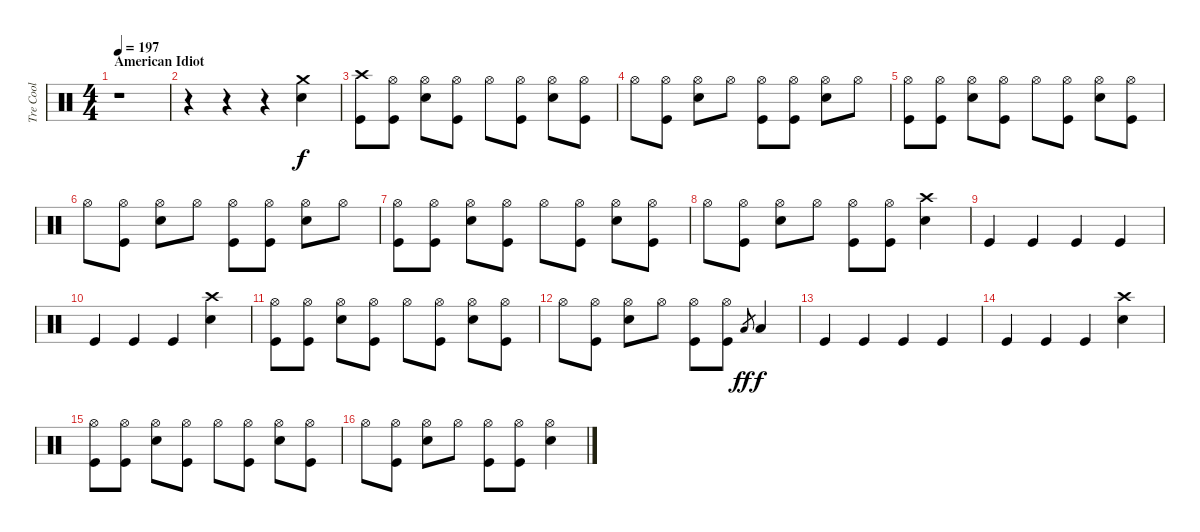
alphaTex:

\track ("Tre Cool" "Tre Cool") {instrument percussion}
\staff {score}
\articulation defaults
\ts (4 4)
\section ("" "American Idiot")
\tempo 197
\clef neutral
\ks c
r.1{dy f volume 14} |
r.4 r.4 r.4 ("Crash medium (hit)" "Electric Snare (hit)").4 |
("Crash high (hit)" "Kick (hit)").8 ("Hi-Hat (open)" "Kick (hit)").8 ("Hi-Hat (open)" "Electric Snare (hit)").8 ("Hi-Hat (open)" "Kick (hit)").8 "Hi-Hat (open)".8 ("Hi-Hat (open)" "Kick (hit)").8 ("Hi-Hat (open)" "Electric Snare (hit)").8 ("Hi-Hat (open)" "Kick (hit)").8 |
"Hi-Hat (open)".8 ("Hi-Hat (open)" "Kick (hit)").8 ("Hi-Hat (open)" "Electric Snare (hit)").8 "Hi-Hat (open)".8 ("Hi-Hat (open)" "Kick (hit)").8 ("Hi-Hat (open)" "Kick (hit)").8 ("Hi-Hat (open)" "Electric Snare (hit)").8 "Hi-Hat (open)".8 |
("Hi-Hat (open)" "Kick (hit)").8 ("Hi-Hat (open)" "Kick (hit)").8 ("Hi-Hat (open)" "Electric Snare (hit)").8 ("Hi-Hat (open)" "Kick (hit)").8 "Hi-Hat (open)".8 ("Hi-Hat (open)" "Kick (hit)").8 ("Hi-Hat (open)" "Electric Snare (hit)").8 ("Hi-Hat (open)" "Kick (hit)").8 |
"Hi-Hat (open)".8 ("Hi-Hat (open)" "Kick (hit)").8 ("Hi-Hat (open)" "Electric Snare (hit)").8 "Hi-Hat (open)".8 ("Hi-Hat (open)" "Kick (hit)").8 ("Hi-Hat (open)" "Kick (hit)").8 ("Hi-Hat (open)" "Electric Snare (hit)").8 "Hi-Hat (open)".8 |
("Hi-Hat (open)" "Kick (hit)").8 ("Hi-Hat (open)" "Kick (hit)").8 ("Hi-Hat (open)" "Electric Snare (hit)").8 ("Hi-Hat (open)" "Kick (hit)").8 "Hi-Hat (open)".8 ("Hi-Hat (open)" "Kick (hit)").8 ("Hi-Hat (open)" "Electric Snare (hit)").8 ("Hi-Hat (open)" "Kick (hit)").8 |
"Hi-Hat (open)".8 ("Hi-Hat (open)" "Kick (hit)").8 ("Hi-Hat (open)" "Electric Snare (hit)").8 "Hi-Hat (open)".8 ("Hi-Hat (open)" "Kick (hit)").8 ("Hi-Hat (open)" "Kick (hit)").8 ("Crash high (hit)" "Electric Snare (hit)").4 |
"Kick (hit)".4 "Kick (hit)".4 "Kick (hit)".4 "Kick (hit)".4 |
"Kick (hit)".4 "Kick (hit)".4 "Kick (hit)".4 ("Crash high (hit)" "Electric Snare (hit)").4 |
("Hi-Hat (open)" "Kick (hit)").8 ("Hi-Hat (open)" "Kick (hit)").8 ("Hi-Hat (open)" "Electric Snare (hit)").8 ("Hi-Hat (open)" "Kick (hit)").8 "Hi-Hat (open)".8 ("Hi-Hat (open)" "Kick (hit)").8 ("Hi-Hat (open)" "Electric Snare (hit)").8 ("Hi-Hat (open)" "Kick (hit)").8 |
"Hi-Hat (open)".8 ("Hi-Hat (open)" "Kick (hit)").8 ("Hi-Hat (open)" "Electric Snare (hit)").8 "Hi-Hat (open)".8 ("Hi-Hat (open)" "Kick (hit)").8 ("Hi-Hat (open)" "Kick (hit)").8 "Low Floor Tom (hit)".8{gr dy ff} "Low Floor Tom (hit)".4{dy f} |
"Kick (hit)".4 "Kick (hit)".4 "Kick (hit)".4 "Kick (hit)".4 |
"Kick (hit)".4 "Kick (hit)".4 "Kick (hit)".4 ("Crash high (hit)" "Electric Snare (hit)").4 |
("Hi-Hat (open)" "Kick (hit)").8 ("Hi-Hat (open)" "Kick (hit)").8 ("Hi-Hat (open)" "Electric Snare (hit)").8 ("Hi-Hat (open)" "Kick (hit)").8 "Hi-Hat (open)".8 ("Hi-Hat (open)" "Kick (hit)").8 ("Hi-Hat (open)" "Electric Snare (hit)").8 ("Hi-Hat (open)" "Kick (hit)").8 |
"Hi-Hat (open)".8 ("Hi-Hat (open)" "Kick (hit)").8 ("Hi-Hat (open)" "Electric Snare (hit)").8 "Hi-Hat (open)".8 ("Hi-Hat (open)" "Kick (hit)").8 ("Hi-Hat (open)" "Kick (hit)").8 ("Hi-Hat (open)" "Electric Snare (hit)").4
